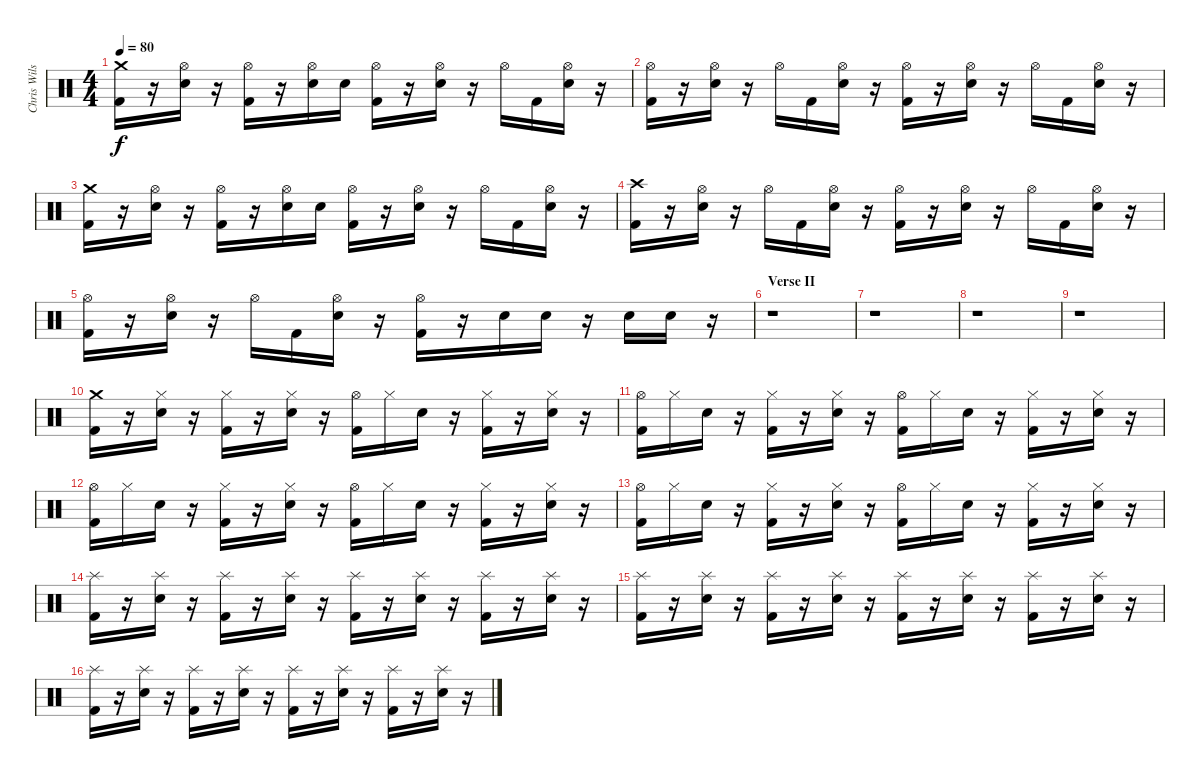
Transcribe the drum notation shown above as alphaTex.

\track ("Chris Wilson - Drums" "Chris Wils") {instrument percussion}
\staff {score}
\articulation defaults
\ts (4 4)
\tempo 80
\clef neutral
\ks c
("Crash medium (hit)" "Kick (hit) 2").16{dy f} r.16 ("Hi-Hat (open)" "Snare (hit) 2").16 r.16 ("Hi-Hat (open)" "Kick (hit) 2").16 r.16 ("Hi-Hat (open)" "Snare (hit) 2").16 "Snare (hit) 2".16 ("Hi-Hat (open)" "Kick (hit) 2").16 r.16 ("Hi-Hat (open)" "Snare (hit) 2").16 r.16 "Hi-Hat (open)".16 "Kick (hit) 2".16 ("Hi-Hat (open)" "Snare (hit) 2").16 r.16 |
("Hi-Hat (open)" "Kick (hit) 2").16 r.16 ("Hi-Hat (open)" "Snare (hit) 2").16 r.16 "Hi-Hat (open)".16 "Kick (hit) 2".16 ("Hi-Hat (open)" "Snare (hit) 2").16 r.16 ("Hi-Hat (open)" "Kick (hit) 2").16 r.16 ("Hi-Hat (open)" "Snare (hit) 2").16 r.16 "Hi-Hat (open)".16 "Kick (hit) 2".16 ("Hi-Hat (open)" "Snare (hit) 2").16 r.16 |
("Crash medium (hit)" "Kick (hit) 2").16 r.16 ("Hi-Hat (open)" "Snare (hit) 2").16 r.16 ("Hi-Hat (open)" "Kick (hit) 2").16 r.16 ("Hi-Hat (open)" "Snare (hit) 2").16 "Snare (hit) 2".16 ("Hi-Hat (open)" "Kick (hit) 2").16 r.16 ("Hi-Hat (open)" "Snare (hit) 2").16 r.16 "Hi-Hat (open)".16 "Kick (hit) 2".16 ("Hi-Hat (open)" "Snare (hit) 2").16 r.16 |
("Crash high (hit)" "Kick (hit) 2").16 r.16 ("Hi-Hat (open)" "Snare (hit) 2").16 r.16 "Hi-Hat (open)".16 "Kick (hit) 2".16 ("Hi-Hat (open)" "Snare (hit) 2").16 r.16 ("Hi-Hat (open)" "Kick (hit) 2").16 r.16 ("Hi-Hat (open)" "Snare (hit) 2").16 r.16 "Hi-Hat (open)".16 "Kick (hit) 2".16 ("Hi-Hat (open)" "Snare (hit) 2").16 r.16 |
("Hi-Hat (open)" "Kick (hit) 2").16 r.16 ("Hi-Hat (open)" "Snare (hit) 2").16 r.16 "Hi-Hat (open)".16 "Kick (hit) 2".16 ("Hi-Hat (open)" "Snare (hit) 2").16 r.16 ("Hi-Hat (open)" "Kick (hit) 2").16 r.16 "Snare (hit) 2".16 "Snare (hit) 2".16 r.16 "Snare (hit) 2".16 "Snare (hit) 2".16 r.16 |
\section ("" "Verse II")
r.1 |
r.1 |
r.1 |
r.1 |
("Crash medium (hit)" "Kick (hit) 2").16 r.16 ("Hi-Hat (closed)" "Snare (hit) 2").16 r.16 ("Hi-Hat (closed)" "Kick (hit) 2").16 r.16 ("Hi-Hat (closed)" "Snare (hit) 2").16 r.16 ("Hi-Hat (open)" "Kick (hit) 2").16 "Hi-Hat (closed)".16 "Snare (hit) 2".16 r.16 ("Hi-Hat (closed)" "Kick (hit) 2").16 r.16 ("Hi-Hat (closed)" "Snare (hit) 2").16 r.16 |
("Hi-Hat (open)" "Kick (hit) 2").16 "Hi-Hat (closed)".16 "Snare (hit) 2".16 r.16 ("Hi-Hat (closed)" "Kick (hit) 2").16 r.16 ("Hi-Hat (closed)" "Snare (hit) 2").16 r.16 ("Hi-Hat (open)" "Kick (hit) 2").16 "Hi-Hat (closed)".16 "Snare (hit) 2".16 r.16 ("Hi-Hat (closed)" "Kick (hit) 2").16 r.16 ("Hi-Hat (closed)" "Snare (hit) 2").16 r.16 |
("Hi-Hat (open)" "Kick (hit) 2").16 "Hi-Hat (closed)".16 "Snare (hit) 2".16 r.16 ("Hi-Hat (closed)" "Kick (hit) 2").16 r.16 ("Hi-Hat (closed)" "Snare (hit) 2").16 r.16 ("Hi-Hat (open)" "Kick (hit) 2").16 "Hi-Hat (closed)".16 "Snare (hit) 2".16 r.16 ("Hi-Hat (closed)" "Kick (hit) 2").16 r.16 ("Hi-Hat (closed)" "Snare (hit) 2").16 r.16 |
("Hi-Hat (open)" "Kick (hit) 2").16 "Hi-Hat (closed)".16 "Snare (hit) 2".16 r.16 ("Hi-Hat (closed)" "Kick (hit) 2").16 r.16 ("Hi-Hat (closed)" "Snare (hit) 2").16 r.16 ("Hi-Hat (open)" "Kick (hit) 2").16 "Hi-Hat (closed)".16 "Snare (hit) 2".16 r.16 ("Hi-Hat (closed)" "Kick (hit) 2").16 r.16 ("Hi-Hat (closed)" "Snare (hit) 2").16 r.16 |
("Splash (hit)" "Kick (hit) 2").16 r.16 ("Splash (hit)" "Snare (hit) 2").16 r.16 ("Splash (hit)" "Kick (hit) 2").16 r.16 ("Splash (hit)" "Snare (hit) 2").16 r.16 ("Splash (hit)" "Kick (hit) 2").16 r.16 ("Splash (hit)" "Snare (hit) 2").16 r.16 ("Splash (hit)" "Kick (hit) 2").16 r.16 ("Splash (hit)" "Snare (hit) 2").16 r.16 |
("Splash (hit)" "Kick (hit) 2").16 r.16 ("Splash (hit)" "Snare (hit) 2").16 r.16 ("Splash (hit)" "Kick (hit) 2").16 r.16 ("Splash (hit)" "Snare (hit) 2").16 r.16 ("Splash (hit)" "Kick (hit) 2").16 r.16 ("Splash (hit)" "Snare (hit) 2").16 r.16 ("Splash (hit)" "Kick (hit) 2").16 r.16 ("Splash (hit)" "Snare (hit) 2").16 r.16 |
("Splash (hit)" "Kick (hit) 2").16 r.16 ("Splash (hit)" "Snare (hit) 2").16 r.16 ("Splash (hit)" "Kick (hit) 2").16 r.16 ("Splash (hit)" "Snare (hit) 2").16 r.16 ("Splash (hit)" "Kick (hit) 2").16 r.16 ("Splash (hit)" "Snare (hit) 2").16 r.16 ("Splash (hit)" "Kick (hit) 2").16 r.16 ("Splash (hit)" "Snare (hit) 2").16 r.16
